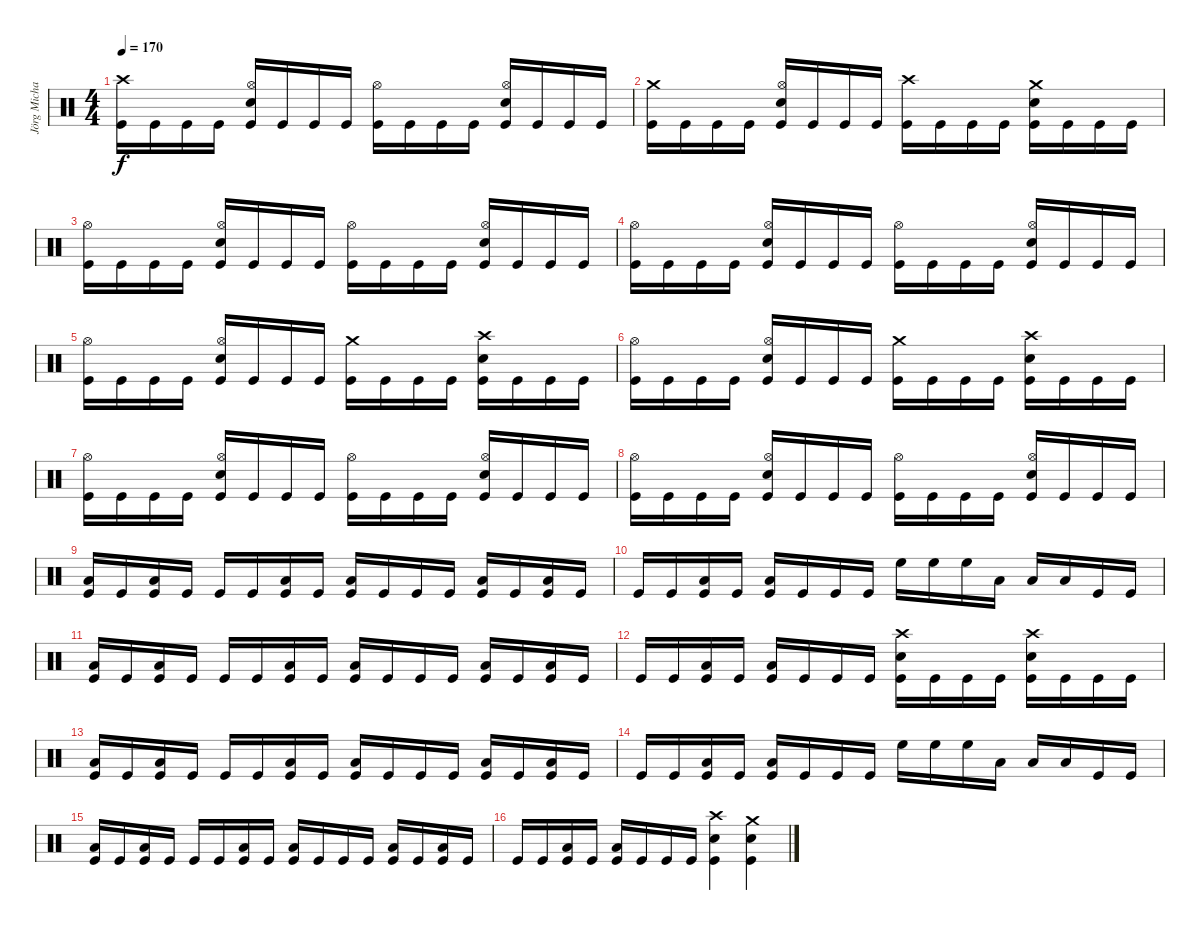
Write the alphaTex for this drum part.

\track ("Jörg Michael" "Jörg Micha") {instrument percussion}
\staff {score}
\articulation defaults
\ts (4 4)
\tempo 170
\clef neutral
\ks c
("Crash high (hit)" "Kick (hit)").16{dy f} "Kick (hit)".16 "Kick (hit)".16 "Kick (hit)".16 ("Hi-Hat (open)" "Electric Snare (hit)" "Kick (hit)").16 "Kick (hit)".16 "Kick (hit)".16 "Kick (hit)".16 ("Hi-Hat (open)" "Kick (hit)").16 "Kick (hit)".16 "Kick (hit)".16 "Kick (hit)".16 ("Hi-Hat (open)" "Electric Snare (hit)" "Kick (hit)").16 "Kick (hit)".16 "Kick (hit)".16 "Kick (hit)".16 |
("Crash medium (hit)" "Kick (hit)").16 "Kick (hit)".16 "Kick (hit)".16 "Kick (hit)".16 ("Hi-Hat (open)" "Electric Snare (hit)" "Kick (hit)").16 "Kick (hit)".16 "Kick (hit)".16 "Kick (hit)".16 ("Crash high (hit)" "Kick (hit)").16 "Kick (hit)".16 "Kick (hit)".16 "Kick (hit)".16 ("Crash medium (hit)" "Electric Snare (hit)" "Kick (hit)").16 "Kick (hit)".16 "Kick (hit)".16 "Kick (hit)".16 |
("Hi-Hat (open)" "Kick (hit)").16 "Kick (hit)".16 "Kick (hit)".16 "Kick (hit)".16 ("Hi-Hat (open)" "Electric Snare (hit)" "Kick (hit)").16 "Kick (hit)".16 "Kick (hit)".16 "Kick (hit)".16 ("Hi-Hat (open)" "Kick (hit)").16 "Kick (hit)".16 "Kick (hit)".16 "Kick (hit)".16 ("Hi-Hat (open)" "Electric Snare (hit)" "Kick (hit)").16 "Kick (hit)".16 "Kick (hit)".16 "Kick (hit)".16 |
("Hi-Hat (open)" "Kick (hit)").16 "Kick (hit)".16 "Kick (hit)".16 "Kick (hit)".16 ("Hi-Hat (open)" "Electric Snare (hit)" "Kick (hit)").16 "Kick (hit)".16 "Kick (hit)".16 "Kick (hit)".16 ("Hi-Hat (open)" "Kick (hit)").16 "Kick (hit)".16 "Kick (hit)".16 "Kick (hit)".16 ("Hi-Hat (open)" "Electric Snare (hit)" "Kick (hit)").16 "Kick (hit)".16 "Kick (hit)".16 "Kick (hit)".16 |
("Hi-Hat (open)" "Kick (hit)").16 "Kick (hit)".16 "Kick (hit)".16 "Kick (hit)".16 ("Hi-Hat (open)" "Electric Snare (hit)" "Kick (hit)").16 "Kick (hit)".16 "Kick (hit)".16 "Kick (hit)".16 ("Crash medium (hit)" "Kick (hit)").16 "Kick (hit)".16 "Kick (hit)".16 "Kick (hit)".16 ("Crash high (hit)" "Electric Snare (hit)" "Kick (hit)").16 "Kick (hit)".16 "Kick (hit)".16 "Kick (hit)".16 |
("Hi-Hat (open)" "Kick (hit)").16 "Kick (hit)".16 "Kick (hit)".16 "Kick (hit)".16 ("Hi-Hat (open)" "Electric Snare (hit)" "Kick (hit)").16 "Kick (hit)".16 "Kick (hit)".16 "Kick (hit)".16 ("Crash medium (hit)" "Kick (hit)").16 "Kick (hit)".16 "Kick (hit)".16 "Kick (hit)".16 ("Crash high (hit)" "Electric Snare (hit)" "Kick (hit)").16 "Kick (hit)".16 "Kick (hit)".16 "Kick (hit)".16 |
("Hi-Hat (open)" "Kick (hit)").16 "Kick (hit)".16 "Kick (hit)".16 "Kick (hit)".16 ("Hi-Hat (open)" "Electric Snare (hit)" "Kick (hit)").16 "Kick (hit)".16 "Kick (hit)".16 "Kick (hit)".16 ("Hi-Hat (open)" "Kick (hit)").16 "Kick (hit)".16 "Kick (hit)".16 "Kick (hit)".16 ("Hi-Hat (open)" "Electric Snare (hit)" "Kick (hit)").16 "Kick (hit)".16 "Kick (hit)".16 "Kick (hit)".16 |
("Hi-Hat (open)" "Kick (hit)").16 "Kick (hit)".16 "Kick (hit)".16 "Kick (hit)".16 ("Hi-Hat (open)" "Electric Snare (hit)" "Kick (hit)").16 "Kick (hit)".16 "Kick (hit)".16 "Kick (hit)".16 ("Hi-Hat (open)" "Kick (hit)").16 "Kick (hit)".16 "Kick (hit)".16 "Kick (hit)".16 ("Hi-Hat (open)" "Electric Snare (hit)" "Kick (hit)").16 "Kick (hit)".16 "Kick (hit)".16 "Kick (hit)".16 |
("Low Floor Tom (hit)" "Kick (hit)").16 "Kick (hit)".16 ("Low Floor Tom (hit)" "Kick (hit)").16 "Kick (hit)".16 "Kick (hit)".16 "Kick (hit)".16 ("Low Floor Tom (hit)" "Kick (hit)").16 "Kick (hit)".16 ("Low Floor Tom (hit)" "Kick (hit)").16 "Kick (hit)".16 "Kick (hit)".16 "Kick (hit)".16 ("Low Floor Tom (hit)" "Kick (hit)").16 "Kick (hit)".16 ("Low Floor Tom (hit)" "Kick (hit)").16 "Kick (hit)".16 |
"Kick (hit)".16 "Kick (hit)".16 ("Low Floor Tom (hit)" "Kick (hit)").16 "Kick (hit)".16 ("Low Floor Tom (hit)" "Kick (hit)").16 "Kick (hit)".16 "Kick (hit)".16 "Kick (hit)".16 "High Floor Tom (hit)".16 "High Floor Tom (hit)".16 "High Floor Tom (hit)".16 "Low Tom (hit)".16 "Low Tom (hit)".16 "Low Tom (hit)".16 "Kick (hit)".16 "Kick (hit)".16 |
("Low Floor Tom (hit)" "Kick (hit)").16 "Kick (hit)".16 ("Low Floor Tom (hit)" "Kick (hit)").16 "Kick (hit)".16 "Kick (hit)".16 "Kick (hit)".16 ("Low Floor Tom (hit)" "Kick (hit)").16 "Kick (hit)".16 ("Low Floor Tom (hit)" "Kick (hit)").16 "Kick (hit)".16 "Kick (hit)".16 "Kick (hit)".16 ("Low Floor Tom (hit)" "Kick (hit)").16 "Kick (hit)".16 ("Low Floor Tom (hit)" "Kick (hit)").16 "Kick (hit)".16 |
"Kick (hit)".16 "Kick (hit)".16 ("Low Floor Tom (hit)" "Kick (hit)").16 "Kick (hit)".16 ("Low Floor Tom (hit)" "Kick (hit)").16 "Kick (hit)".16 "Kick (hit)".16 "Kick (hit)".16 ("Crash high (hit)" "Electric Snare (hit)" "Kick (hit)").16 "Kick (hit)".16 "Kick (hit)".16 "Kick (hit)".16 ("Crash high (hit)" "Electric Snare (hit)" "Kick (hit)").16 "Kick (hit)".16 "Kick (hit)".16 "Kick (hit)".16 |
("Low Floor Tom (hit)" "Kick (hit)").16 "Kick (hit)".16 ("Low Floor Tom (hit)" "Kick (hit)").16 "Kick (hit)".16 "Kick (hit)".16 "Kick (hit)".16 ("Low Floor Tom (hit)" "Kick (hit)").16 "Kick (hit)".16 ("Low Floor Tom (hit)" "Kick (hit)").16 "Kick (hit)".16 "Kick (hit)".16 "Kick (hit)".16 ("Low Floor Tom (hit)" "Kick (hit)").16 "Kick (hit)".16 ("Low Floor Tom (hit)" "Kick (hit)").16 "Kick (hit)".16 |
"Kick (hit)".16 "Kick (hit)".16 ("Low Floor Tom (hit)" "Kick (hit)").16 "Kick (hit)".16 ("Low Floor Tom (hit)" "Kick (hit)").16 "Kick (hit)".16 "Kick (hit)".16 "Kick (hit)".16 "High Floor Tom (hit)".16 "High Floor Tom (hit)".16 "High Floor Tom (hit)".16 "Low Tom (hit)".16 "Low Tom (hit)".16 "Low Tom (hit)".16 "Kick (hit)".16 "Kick (hit)".16 |
("Low Floor Tom (hit)" "Kick (hit)").16 "Kick (hit)".16 ("Low Floor Tom (hit)" "Kick (hit)").16 "Kick (hit)".16 "Kick (hit)".16 "Kick (hit)".16 ("Low Floor Tom (hit)" "Kick (hit)").16 "Kick (hit)".16 ("Low Floor Tom (hit)" "Kick (hit)").16 "Kick (hit)".16 "Kick (hit)".16 "Kick (hit)".16 ("Low Floor Tom (hit)" "Kick (hit)").16 "Kick (hit)".16 ("Low Floor Tom (hit)" "Kick (hit)").16 "Kick (hit)".16 |
"Kick (hit)".16 "Kick (hit)".16 ("Low Floor Tom (hit)" "Kick (hit)").16 "Kick (hit)".16 ("Low Floor Tom (hit)" "Kick (hit)").16 "Kick (hit)".16 "Kick (hit)".16 "Kick (hit)".16 ("Crash high (hit)" "Electric Snare (hit)" "Kick (hit)").4 ("Crash medium (hit)" "Kick (hit)" "Electric Snare (hit)").4
